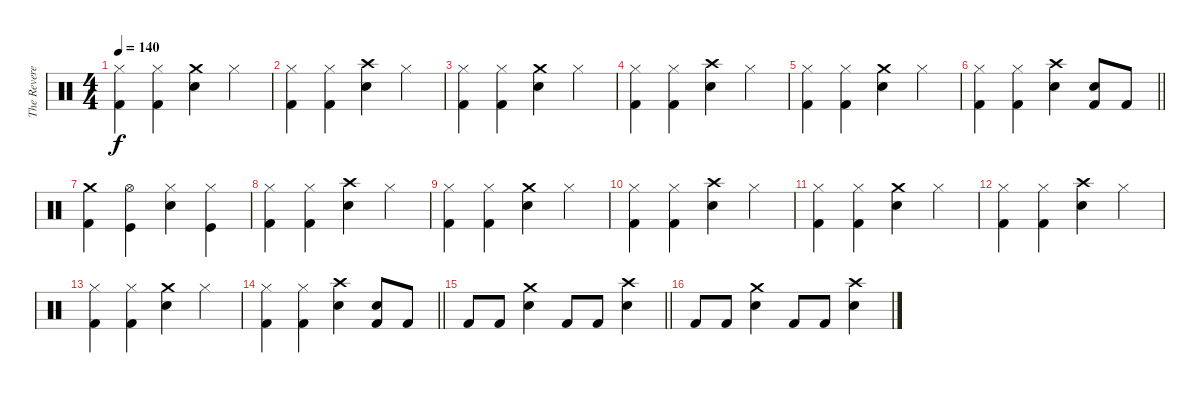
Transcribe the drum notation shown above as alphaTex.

\track ("The Reverend" "The Revere") {instrument percussion}
\staff {score}
\articulation defaults
\ts (4 4)
\tempo 140
\clef neutral
\ks c
("Hi-Hat (closed)" "Kick (hit) 2").4{dy f} ("Hi-Hat (closed)" "Kick (hit) 2").4 ("Crash medium (hit)" "Snare (hit) 2").4 "Hi-Hat (closed)".4 |
("Hi-Hat (closed)" "Kick (hit) 2").4 ("Hi-Hat (closed)" "Kick (hit) 2").4 ("Crash high (hit)" "Snare (hit) 2").4 "Hi-Hat (closed)".4 |
("Hi-Hat (closed)" "Kick (hit) 2").4 ("Hi-Hat (closed)" "Kick (hit) 2").4 ("Crash medium (hit)" "Snare (hit) 2").4 "Hi-Hat (closed)".4 |
("Hi-Hat (closed)" "Kick (hit) 2").4 ("Hi-Hat (closed)" "Kick (hit) 2").4 ("Crash high (hit)" "Snare (hit) 2").4 "Hi-Hat (closed)".4 |
("Hi-Hat (closed)" "Kick (hit) 2").4 ("Hi-Hat (closed)" "Kick (hit) 2").4 ("Crash medium (hit)" "Snare (hit) 2").4 "Hi-Hat (closed)".4 |
\barLineRight lightlight
("Hi-Hat (closed)" "Kick (hit) 2").4 ("Hi-Hat (closed)" "Kick (hit) 2").4 ("Crash high (hit)" "Snare (hit) 2").4 ("Snare (hit) 2" "Kick (hit) 2").8 "Kick (hit) 2".8 |
("Crash medium (hit)" "Kick (hit) 2").4 ("Hi-Hat (open)" "Kick (hit)").4 ("Hi-Hat (closed)" "Snare (hit) 2").4 ("Hi-Hat (closed)" "Kick (hit)").4 |
("Hi-Hat (closed)" "Kick (hit) 2").4 ("Hi-Hat (closed)" "Kick (hit) 2").4 ("Crash high (hit)" "Snare (hit) 2").4 "Hi-Hat (closed)".4 |
("Hi-Hat (closed)" "Kick (hit) 2").4 ("Hi-Hat (closed)" "Kick (hit) 2").4 ("Crash medium (hit)" "Snare (hit) 2").4 "Hi-Hat (closed)".4 |
("Hi-Hat (closed)" "Kick (hit) 2").4 ("Hi-Hat (closed)" "Kick (hit) 2").4 ("Crash high (hit)" "Snare (hit) 2").4 "Hi-Hat (closed)".4 |
("Hi-Hat (closed)" "Kick (hit) 2").4 ("Hi-Hat (closed)" "Kick (hit) 2").4 ("Crash medium (hit)" "Snare (hit) 2").4 "Hi-Hat (closed)".4 |
("Hi-Hat (closed)" "Kick (hit) 2").4 ("Hi-Hat (closed)" "Kick (hit) 2").4 ("Crash high (hit)" "Snare (hit) 2").4 "Hi-Hat (closed)".4 |
("Hi-Hat (closed)" "Kick (hit) 2").4 ("Hi-Hat (closed)" "Kick (hit) 2").4 ("Crash medium (hit)" "Snare (hit) 2").4 "Hi-Hat (closed)".4 |
\barLineRight lightlight
("Hi-Hat (closed)" "Kick (hit) 2").4 ("Hi-Hat (closed)" "Kick (hit) 2").4 ("Crash high (hit)" "Snare (hit) 2").4 ("Snare (hit) 2" "Kick (hit) 2").8 "Kick (hit) 2".8 |
\barLineRight lightlight "Kick (hit) 2".8 "Kick (hit) 2".8
("Crash medium (hit)" "Snare (hit) 2").4 "Kick (hit) 2".8 "Kick (hit) 2".8 ("Crash high (hit)" "Snare (hit) 2").4 |
"Kick (hit) 2".8 "Kick (hit) 2".8 ("Crash medium (hit)" "Snare (hit) 2").4 "Kick (hit) 2".8 "Kick (hit) 2".8 ("Crash high (hit)" "Snare (hit) 2").4
